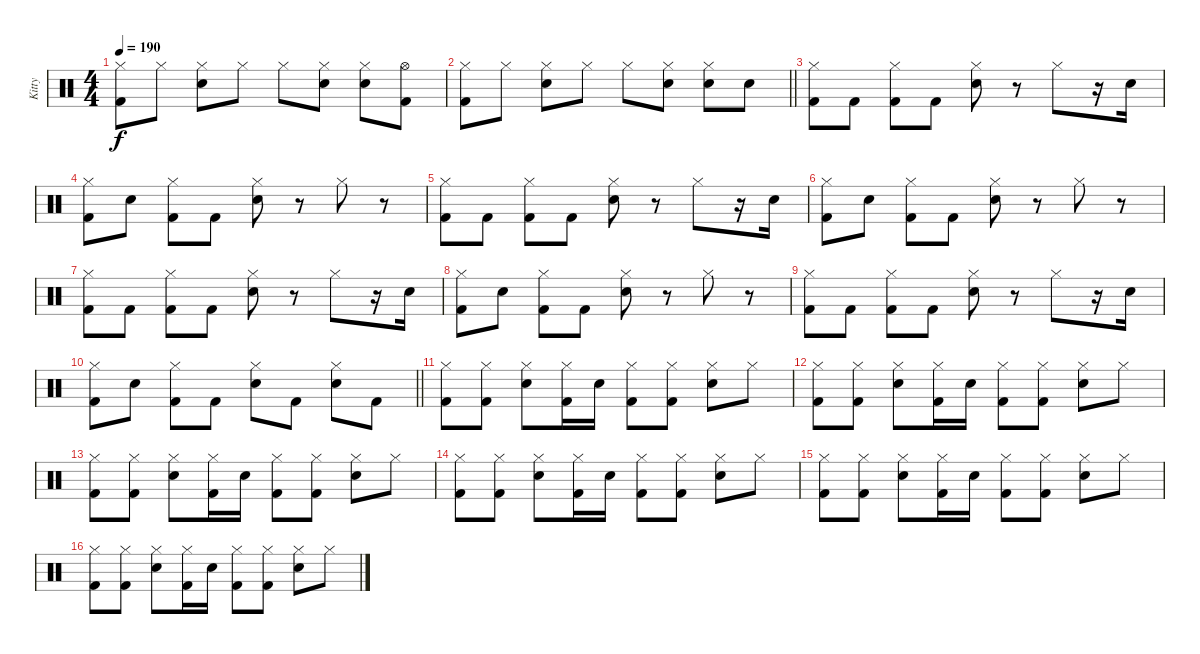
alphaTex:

\track ("Kitty" "Kitty") {instrument percussion}
\staff {score}
\articulation defaults
\ts (4 4)
\tempo 190
\clef neutral
\ks c
("Hi-Hat (closed)" "Kick (hit) 2").8{dy f} "Hi-Hat (closed)".8 ("Hi-Hat (closed)" "Snare (hit) 2").8 "Hi-Hat (closed)".8 "Hi-Hat (closed)".8 ("Hi-Hat (closed)" "Snare (hit) 2").8 ("Hi-Hat (closed)" "Snare (hit) 2").8 ("Hi-Hat (open)" "Kick (hit) 2").8 |
\barLineRight lightlight
("Hi-Hat (closed)" "Kick (hit) 2").8 "Hi-Hat (closed)".8 ("Hi-Hat (closed)" "Snare (hit) 2").8 "Hi-Hat (closed)".8 "Hi-Hat (closed)".8 ("Hi-Hat (closed)" "Snare (hit) 2").8 ("Hi-Hat (closed)" "Snare (hit) 2").8 "Snare (hit) 2".8 |
("Hi-Hat (closed)" "Kick (hit) 2").8 "Kick (hit) 2".8 ("Hi-Hat (closed)" "Kick (hit) 2").8 "Kick (hit) 2".8 ("Hi-Hat (closed)" "Snare (hit) 2").8 r.8 "Hi-Hat (closed)".8 r.16 "Snare (hit) 2".16 |
("Hi-Hat (closed)" "Kick (hit) 2").8 "Snare (hit) 2".8 ("Hi-Hat (closed)" "Kick (hit) 2").8 "Kick (hit) 2".8 ("Hi-Hat (closed)" "Snare (hit) 2").8 r.8 "Hi-Hat (closed)".8 r.8 |
("Hi-Hat (closed)" "Kick (hit) 2").8 "Kick (hit) 2".8 ("Hi-Hat (closed)" "Kick (hit) 2").8 "Kick (hit) 2".8 ("Hi-Hat (closed)" "Snare (hit) 2").8 r.8 "Hi-Hat (closed)".8 r.16 "Snare (hit) 2".16 |
("Hi-Hat (closed)" "Kick (hit) 2").8 "Snare (hit) 2".8 ("Hi-Hat (closed)" "Kick (hit) 2").8 "Kick (hit) 2".8 ("Hi-Hat (closed)" "Snare (hit) 2").8 r.8 "Hi-Hat (closed)".8 r.8 |
("Hi-Hat (closed)" "Kick (hit) 2").8 "Kick (hit) 2".8 ("Hi-Hat (closed)" "Kick (hit) 2").8 "Kick (hit) 2".8 ("Hi-Hat (closed)" "Snare (hit) 2").8 r.8 "Hi-Hat (closed)".8 r.16 "Snare (hit) 2".16 |
("Hi-Hat (closed)" "Kick (hit) 2").8 "Snare (hit) 2".8 ("Hi-Hat (closed)" "Kick (hit) 2").8 "Kick (hit) 2".8 ("Hi-Hat (closed)" "Snare (hit) 2").8 r.8 "Hi-Hat (closed)".8 r.8 |
("Hi-Hat (closed)" "Kick (hit) 2").8 "Kick (hit) 2".8 ("Hi-Hat (closed)" "Kick (hit) 2").8 "Kick (hit) 2".8 ("Hi-Hat (closed)" "Snare (hit) 2").8 r.8 "Hi-Hat (closed)".8 r.16 "Snare (hit) 2".16 |
\barLineRight lightlight
("Hi-Hat (closed)" "Kick (hit) 2").8 "Snare (hit) 2".8 ("Hi-Hat (closed)" "Kick (hit) 2").8 "Kick (hit) 2".8 ("Hi-Hat (closed)" "Snare (hit) 2").8 "Kick (hit) 2".8 ("Hi-Hat (closed)" "Snare (hit) 2").8 "Kick (hit) 2".8 |
("Hi-Hat (closed)" "Kick (hit) 2").8 ("Hi-Hat (closed)" "Kick (hit) 2").8 ("Hi-Hat (closed)" "Snare (hit) 2").8 ("Hi-Hat (closed)" "Kick (hit) 2").16 "Snare (hit) 2".16 ("Hi-Hat (closed)" "Kick (hit) 2").8 ("Hi-Hat (closed)" "Kick (hit) 2").8 ("Hi-Hat (closed)" "Snare (hit) 2").8 "Hi-Hat (closed)".8 |
("Hi-Hat (closed)" "Kick (hit) 2").8 ("Hi-Hat (closed)" "Kick (hit) 2").8 ("Hi-Hat (closed)" "Snare (hit) 2").8 ("Hi-Hat (closed)" "Kick (hit) 2").16 "Snare (hit) 2".16 ("Hi-Hat (closed)" "Kick (hit) 2").8 ("Hi-Hat (closed)" "Kick (hit) 2").8 ("Hi-Hat (closed)" "Snare (hit) 2").8 "Hi-Hat (closed)".8 |
("Hi-Hat (closed)" "Kick (hit) 2").8 ("Hi-Hat (closed)" "Kick (hit) 2").8 ("Hi-Hat (closed)" "Snare (hit) 2").8 ("Hi-Hat (closed)" "Kick (hit) 2").16 "Snare (hit) 2".16 ("Hi-Hat (closed)" "Kick (hit) 2").8 ("Hi-Hat (closed)" "Kick (hit) 2").8 ("Hi-Hat (closed)" "Snare (hit) 2").8 "Hi-Hat (closed)".8 |
("Hi-Hat (closed)" "Kick (hit) 2").8 ("Hi-Hat (closed)" "Kick (hit) 2").8 ("Hi-Hat (closed)" "Snare (hit) 2").8 ("Hi-Hat (closed)" "Kick (hit) 2").16 "Snare (hit) 2".16 ("Hi-Hat (closed)" "Kick (hit) 2").8 ("Hi-Hat (closed)" "Kick (hit) 2").8 ("Hi-Hat (closed)" "Snare (hit) 2").8 "Hi-Hat (closed)".8 |
("Hi-Hat (closed)" "Kick (hit) 2").8 ("Hi-Hat (closed)" "Kick (hit) 2").8 ("Hi-Hat (closed)" "Snare (hit) 2").8 ("Hi-Hat (closed)" "Kick (hit) 2").16 "Snare (hit) 2".16 ("Hi-Hat (closed)" "Kick (hit) 2").8 ("Hi-Hat (closed)" "Kick (hit) 2").8 ("Hi-Hat (closed)" "Snare (hit) 2").8 "Hi-Hat (closed)".8 |
("Hi-Hat (closed)" "Kick (hit) 2").8 ("Hi-Hat (closed)" "Kick (hit) 2").8 ("Hi-Hat (closed)" "Snare (hit) 2").8 ("Hi-Hat (closed)" "Kick (hit) 2").16 "Snare (hit) 2".16 ("Hi-Hat (closed)" "Kick (hit) 2").8 ("Hi-Hat (closed)" "Kick (hit) 2").8 ("Hi-Hat (closed)" "Snare (hit) 2").8 "Hi-Hat (closed)".8
